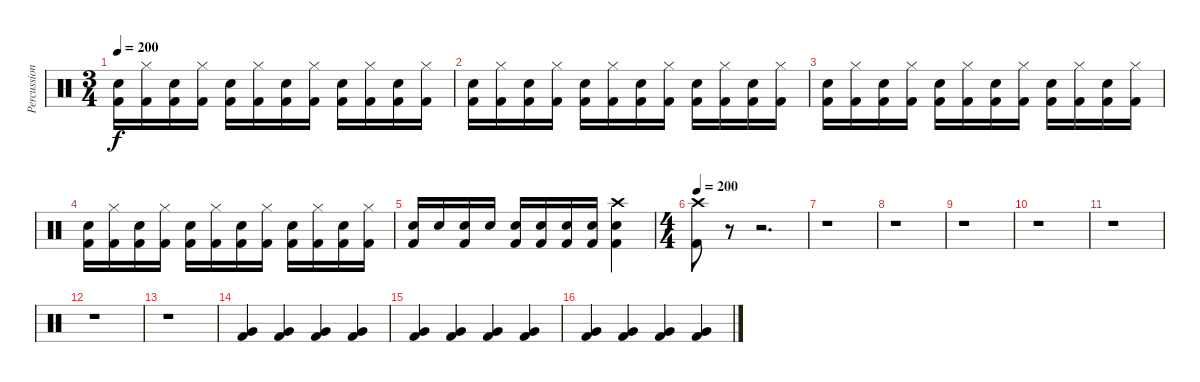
\track ("Percussion" "Percussion") {instrument percussion}
\staff {score}
\articulation defaults
\ts (3 4)
\tempo 200
\clef neutral
\ks c
("Snare (hit) 2" "Kick (hit) 2").16{dy f} ("Hi-Hat (closed)" "Kick (hit) 2").16 ("Snare (hit) 2" "Kick (hit) 2").16 ("Hi-Hat (closed)" "Kick (hit) 2").16 ("Snare (hit) 2" "Kick (hit) 2").16 ("Hi-Hat (closed)" "Kick (hit) 2").16 ("Snare (hit) 2" "Kick (hit) 2").16 ("Hi-Hat (closed)" "Kick (hit) 2").16 ("Snare (hit) 2" "Kick (hit) 2").16 ("Hi-Hat (closed)" "Kick (hit) 2").16 ("Snare (hit) 2" "Kick (hit) 2").16 ("Hi-Hat (closed)" "Kick (hit) 2").16 |
("Snare (hit) 2" "Kick (hit) 2").16 ("Hi-Hat (closed)" "Kick (hit) 2").16 ("Snare (hit) 2" "Kick (hit) 2").16 ("Hi-Hat (closed)" "Kick (hit) 2").16 ("Snare (hit) 2" "Kick (hit) 2").16 ("Hi-Hat (closed)" "Kick (hit) 2").16 ("Snare (hit) 2" "Kick (hit) 2").16 ("Hi-Hat (closed)" "Kick (hit) 2").16 ("Snare (hit) 2" "Kick (hit) 2").16 ("Hi-Hat (closed)" "Kick (hit) 2").16 ("Snare (hit) 2" "Kick (hit) 2").16 ("Hi-Hat (closed)" "Kick (hit) 2").16 |
("Snare (hit) 2" "Kick (hit) 2").16 ("Hi-Hat (closed)" "Kick (hit) 2").16 ("Snare (hit) 2" "Kick (hit) 2").16 ("Hi-Hat (closed)" "Kick (hit) 2").16 ("Snare (hit) 2" "Kick (hit) 2").16 ("Hi-Hat (closed)" "Kick (hit) 2").16 ("Snare (hit) 2" "Kick (hit) 2").16 ("Hi-Hat (closed)" "Kick (hit) 2").16 ("Snare (hit) 2" "Kick (hit) 2").16 ("Hi-Hat (closed)" "Kick (hit) 2").16 ("Snare (hit) 2" "Kick (hit) 2").16 ("Hi-Hat (closed)" "Kick (hit) 2").16 |
("Snare (hit) 2" "Kick (hit) 2").16 ("Hi-Hat (closed)" "Kick (hit) 2").16 ("Snare (hit) 2" "Kick (hit) 2").16 ("Hi-Hat (closed)" "Kick (hit) 2").16 ("Snare (hit) 2" "Kick (hit) 2").16 ("Hi-Hat (closed)" "Kick (hit) 2").16 ("Snare (hit) 2" "Kick (hit) 2").16 ("Hi-Hat (closed)" "Kick (hit) 2").16 ("Snare (hit) 2" "Kick (hit) 2").16 ("Hi-Hat (closed)" "Kick (hit) 2").16 ("Snare (hit) 2" "Kick (hit) 2").16 ("Hi-Hat (closed)" "Kick (hit) 2").16 |
("Snare (hit) 2" "Kick (hit) 2").16 "Snare (hit) 2".16 ("Snare (hit) 2" "Kick (hit) 2").16 "Snare (hit) 2".16 ("Snare (hit) 2" "Kick (hit) 2").16 ("Snare (hit) 2" "Kick (hit) 2").16 ("Snare (hit) 2" "Kick (hit) 2").16 ("Snare (hit) 2" "Kick (hit) 2").16 ("Snare (hit) 2" "Crash high (hit)" "Kick (hit) 2").4 |
\ts (4 4)
\tempo 200
("Kick (hit) 2" "Crash high (hit)").8 r.8 r.2{d} |
r.1 |
r.1 |
r.1 |
r.1 |
r.1 |
r.1 |
r.1 |
("Very Low Tom (hit)" "Kick (hit) 2").4{volume 1} ("Very Low Tom (hit)" "Kick (hit) 2").4 ("Very Low Tom (hit)" "Kick (hit) 2").4{volume 2} ("Very Low Tom (hit)" "Kick (hit) 2").4 |
("Very Low Tom (hit)" "Kick (hit) 2").4{volume 3} ("Very Low Tom (hit)" "Kick (hit) 2").4 ("Very Low Tom (hit)" "Kick (hit) 2").4{volume 4} ("Very Low Tom (hit)" "Kick (hit) 2").4 |
("Very Low Tom (hit)" "Kick (hit) 2").4{volume 5} ("Very Low Tom (hit)" "Kick (hit) 2").4 ("Very Low Tom (hit)" "Kick (hit) 2").4{volume 6} ("Very Low Tom (hit)" "Kick (hit) 2").4
